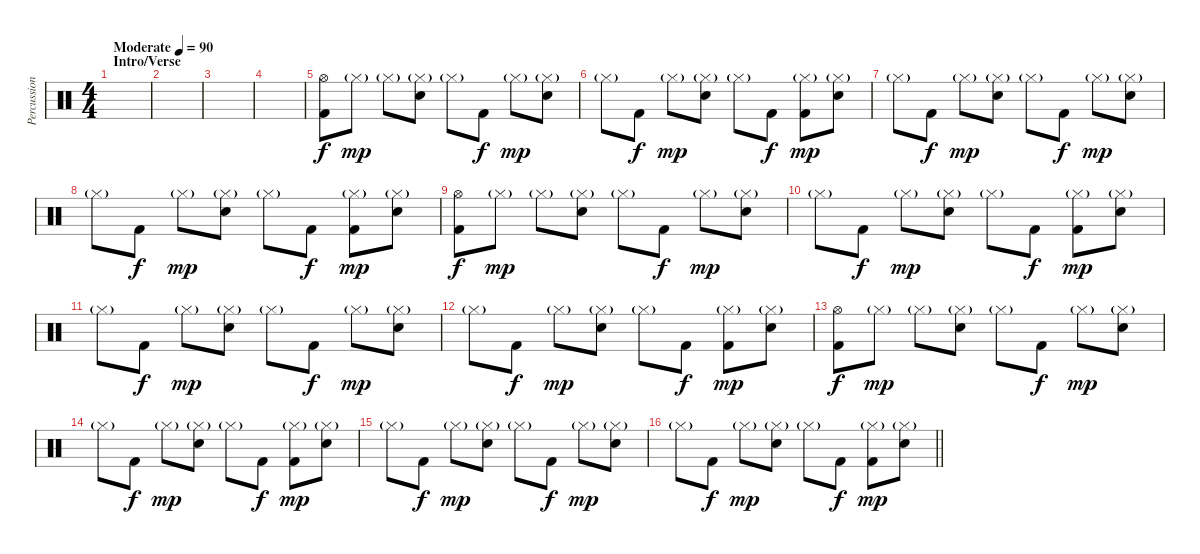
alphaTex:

\track ("Percussion" "Percussion") {instrument percussion}
\staff {score}
\articulation defaults
\ts (4 4)
\section ("" "Intro/Verse")
\tempo (90 "Moderate")
\clef neutral
\ks c
|
|
|
|
("Hi-Hat (open)" "Kick (hit) 2").8 "Hi-Hat (closed)"{g}.8{dy mp} "Hi-Hat (closed)"{g}.8 ("Hi-Hat (closed)"{g} "Electric Snare (hit)").8 "Hi-Hat (closed)"{g}.8 "Kick (hit) 2".8{dy f} "Hi-Hat (closed)"{g}.8{dy mp} ("Hi-Hat (closed)"{g} "Electric Snare (hit)").8 |
"Hi-Hat (closed)"{g}.8 "Kick (hit) 2".8{dy f} "Hi-Hat (closed)"{g}.8{dy mp} ("Hi-Hat (closed)"{g} "Electric Snare (hit)").8 "Hi-Hat (closed)"{g}.8 "Kick (hit) 2".8{dy f} ("Hi-Hat (closed)"{g} "Kick (hit) 2").8{dy mp} ("Hi-Hat (closed)"{g} "Electric Snare (hit)").8 |
"Hi-Hat (closed)"{g}.8 "Kick (hit) 2".8{dy f} "Hi-Hat (closed)"{g}.8{dy mp} ("Hi-Hat (closed)"{g} "Electric Snare (hit)").8 "Hi-Hat (closed)"{g}.8 "Kick (hit) 2".8{dy f} "Hi-Hat (closed)"{g}.8{dy mp} ("Hi-Hat (closed)"{g} "Electric Snare (hit)").8 |
"Hi-Hat (closed)"{g}.8 "Kick (hit) 2".8{dy f} "Hi-Hat (closed)"{g}.8{dy mp} ("Hi-Hat (closed)"{g} "Electric Snare (hit)").8 "Hi-Hat (closed)"{g}.8 "Kick (hit) 2".8{dy f} ("Hi-Hat (closed)"{g} "Kick (hit) 2").8{dy mp} ("Hi-Hat (closed)"{g} "Electric Snare (hit)").8 |
("Hi-Hat (open)" "Kick (hit) 2").8{dy f} "Hi-Hat (closed)"{g}.8{dy mp} "Hi-Hat (closed)"{g}.8 ("Hi-Hat (closed)"{g} "Electric Snare (hit)").8 "Hi-Hat (closed)"{g}.8 "Kick (hit) 2".8{dy f} "Hi-Hat (closed)"{g}.8{dy mp} ("Hi-Hat (closed)"{g} "Electric Snare (hit)").8 |
"Hi-Hat (closed)"{g}.8 "Kick (hit) 2".8{dy f} "Hi-Hat (closed)"{g}.8{dy mp} ("Hi-Hat (closed)"{g} "Electric Snare (hit)").8 "Hi-Hat (closed)"{g}.8 "Kick (hit) 2".8{dy f} ("Hi-Hat (closed)"{g} "Kick (hit) 2").8{dy mp} ("Hi-Hat (closed)"{g} "Electric Snare (hit)").8 |
"Hi-Hat (closed)"{g}.8 "Kick (hit) 2".8{dy f} "Hi-Hat (closed)"{g}.8{dy mp} ("Hi-Hat (closed)"{g} "Electric Snare (hit)").8 "Hi-Hat (closed)"{g}.8 "Kick (hit) 2".8{dy f} "Hi-Hat (closed)"{g}.8{dy mp} ("Hi-Hat (closed)"{g} "Electric Snare (hit)").8 |
"Hi-Hat (closed)"{g}.8 "Kick (hit) 2".8{dy f} "Hi-Hat (closed)"{g}.8{dy mp} ("Hi-Hat (closed)"{g} "Electric Snare (hit)").8 "Hi-Hat (closed)"{g}.8 "Kick (hit) 2".8{dy f} ("Hi-Hat (closed)"{g} "Kick (hit) 2").8{dy mp} ("Hi-Hat (closed)"{g} "Electric Snare (hit)").8 |
("Hi-Hat (open)" "Kick (hit) 2").8{dy f} "Hi-Hat (closed)"{g}.8{dy mp} "Hi-Hat (closed)"{g}.8 ("Hi-Hat (closed)"{g} "Electric Snare (hit)").8 "Hi-Hat (closed)"{g}.8 "Kick (hit) 2".8{dy f} "Hi-Hat (closed)"{g}.8{dy mp} ("Hi-Hat (closed)"{g} "Electric Snare (hit)").8 |
"Hi-Hat (closed)"{g}.8 "Kick (hit) 2".8{dy f} "Hi-Hat (closed)"{g}.8{dy mp} ("Hi-Hat (closed)"{g} "Electric Snare (hit)").8 "Hi-Hat (closed)"{g}.8 "Kick (hit) 2".8{dy f} ("Hi-Hat (closed)"{g} "Kick (hit) 2").8{dy mp} ("Hi-Hat (closed)"{g} "Electric Snare (hit)").8 |
"Hi-Hat (closed)"{g}.8 "Kick (hit) 2".8{dy f} "Hi-Hat (closed)"{g}.8{dy mp} ("Hi-Hat (closed)"{g} "Electric Snare (hit)").8 "Hi-Hat (closed)"{g}.8 "Kick (hit) 2".8{dy f} "Hi-Hat (closed)"{g}.8{dy mp} ("Hi-Hat (closed)"{g} "Electric Snare (hit)").8 |
\barLineRight lightlight "Hi-Hat (closed)"{g}.8 "Kick (hit) 2".8{dy f} "Hi-Hat (closed)"{g}.8{dy mp}
("Hi-Hat (closed)"{g} "Electric Snare (hit)").8 "Hi-Hat (closed)"{g}.8 "Kick (hit) 2".8{dy f} ("Hi-Hat (closed)"{g} "Kick (hit) 2").8{dy mp} ("Hi-Hat (closed)"{g} "Electric Snare (hit)").8
